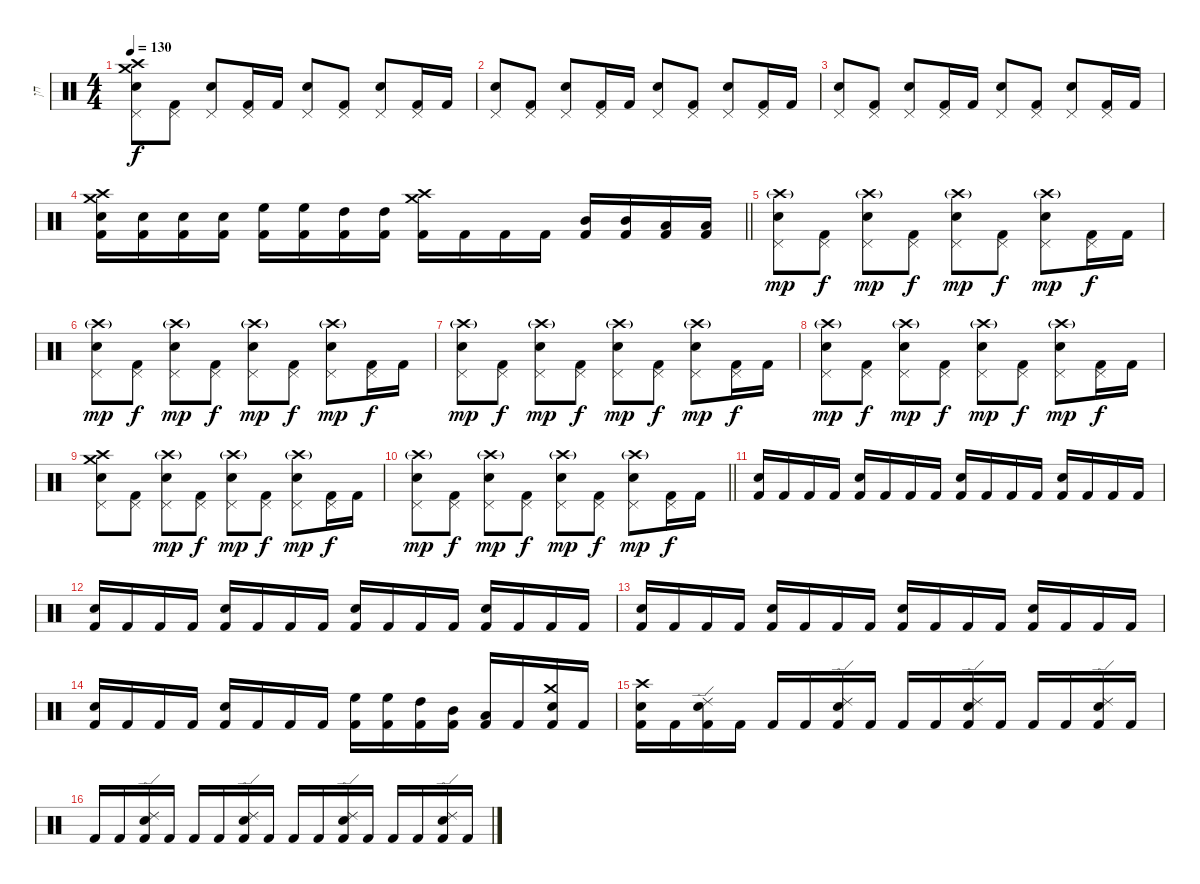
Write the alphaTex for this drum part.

\track ("חן" "חן") {instrument percussion}
\staff {score}
\articulation defaults
\ts (4 4)
\tempo 130
\clef neutral
\ks c
("Crash high (hit)" "Electric Snare (hit)" "Pedal Hi-Hat (hit)" "Crash medium (hit)").8{dy f} ("Pedal Hi-Hat (hit)" "Kick (hit) 2").8 ("Electric Snare (hit)" "Pedal Hi-Hat (hit)").8 ("Pedal Hi-Hat (hit)" "Kick (hit) 2").16 "Kick (hit) 2".16 ("Electric Snare (hit)" "Pedal Hi-Hat (hit)").8 ("Pedal Hi-Hat (hit)" "Kick (hit) 2").8 ("Electric Snare (hit)" "Pedal Hi-Hat (hit)").8 ("Pedal Hi-Hat (hit)" "Kick (hit) 2").16 "Kick (hit) 2".16 |
("Electric Snare (hit)" "Pedal Hi-Hat (hit)").8 ("Pedal Hi-Hat (hit)" "Kick (hit) 2").8 ("Electric Snare (hit)" "Pedal Hi-Hat (hit)").8 ("Pedal Hi-Hat (hit)" "Kick (hit) 2").16 "Kick (hit) 2".16 ("Electric Snare (hit)" "Pedal Hi-Hat (hit)").8 ("Pedal Hi-Hat (hit)" "Kick (hit) 2").8 ("Electric Snare (hit)" "Pedal Hi-Hat (hit)").8 ("Pedal Hi-Hat (hit)" "Kick (hit) 2").16 "Kick (hit) 2".16 |
("Electric Snare (hit)" "Pedal Hi-Hat (hit)").8 ("Pedal Hi-Hat (hit)" "Kick (hit) 2").8 ("Electric Snare (hit)" "Pedal Hi-Hat (hit)").8 ("Pedal Hi-Hat (hit)" "Kick (hit) 2").16 "Kick (hit) 2".16 ("Electric Snare (hit)" "Pedal Hi-Hat (hit)").8 ("Pedal Hi-Hat (hit)" "Kick (hit) 2").8 ("Electric Snare (hit)" "Pedal Hi-Hat (hit)").8 ("Pedal Hi-Hat (hit)" "Kick (hit) 2").16 "Kick (hit) 2".16 |
\barLineRight lightlight
("Crash medium (hit)" "Crash high (hit)" "Electric Snare (hit)" "Kick (hit) 2").16 ("Electric Snare (hit)" "Kick (hit) 2").16 ("Electric Snare (hit)" "Kick (hit) 2").16 ("Electric Snare (hit)" "Kick (hit) 2").16 ("High Floor Tom (hit)" "Kick (hit) 2").16 ("High Floor Tom (hit)" "Kick (hit) 2").16 ("High Tom (hit)" "Kick (hit) 2").16 ("High Tom (hit)" "Kick (hit) 2").16 ("Crash medium (hit)" "Crash high (hit)" "Kick (hit) 2").16 "Kick (hit) 2".16 "Kick (hit) 2".16 "Kick (hit) 2".16 ("Mid Tom (hit)" "Kick (hit) 2").16 ("Mid Tom (hit)" "Kick (hit) 2").16 ("Low Tom (hit)" "Kick (hit) 2").16 ("Low Tom (hit)" "Kick (hit) 2").16 |
("Crash high (hit)"{g} "Electric Snare (hit)" "Pedal Hi-Hat (hit)").8{dy mp} ("Pedal Hi-Hat (hit)" "Kick (hit) 2").8{dy f} ("Crash high (hit)"{g} "Electric Snare (hit)" "Pedal Hi-Hat (hit)").8{dy mp} ("Pedal Hi-Hat (hit)" "Kick (hit) 2").8{dy f} ("Crash high (hit)"{g} "Electric Snare (hit)" "Pedal Hi-Hat (hit)").8{dy mp} ("Pedal Hi-Hat (hit)" "Kick (hit) 2").8{dy f} ("Crash high (hit)"{g} "Electric Snare (hit)" "Pedal Hi-Hat (hit)").8{dy mp} ("Pedal Hi-Hat (hit)" "Kick (hit) 2").16{dy f} "Kick (hit) 2".16 |
("Crash high (hit)"{g} "Electric Snare (hit)" "Pedal Hi-Hat (hit)").8{dy mp} ("Pedal Hi-Hat (hit)" "Kick (hit) 2").8{dy f} ("Crash high (hit)"{g} "Electric Snare (hit)" "Pedal Hi-Hat (hit)").8{dy mp} ("Pedal Hi-Hat (hit)" "Kick (hit) 2").8{dy f} ("Crash high (hit)"{g} "Electric Snare (hit)" "Pedal Hi-Hat (hit)").8{dy mp} ("Pedal Hi-Hat (hit)" "Kick (hit) 2").8{dy f} ("Crash high (hit)"{g} "Electric Snare (hit)" "Pedal Hi-Hat (hit)").8{dy mp} ("Pedal Hi-Hat (hit)" "Kick (hit) 2").16{dy f} "Kick (hit) 2".16 |
("Crash high (hit)"{g} "Electric Snare (hit)" "Pedal Hi-Hat (hit)").8{dy mp} ("Pedal Hi-Hat (hit)" "Kick (hit) 2").8{dy f} ("Crash high (hit)"{g} "Electric Snare (hit)" "Pedal Hi-Hat (hit)").8{dy mp} ("Pedal Hi-Hat (hit)" "Kick (hit) 2").8{dy f} ("Crash high (hit)"{g} "Electric Snare (hit)" "Pedal Hi-Hat (hit)").8{dy mp} ("Pedal Hi-Hat (hit)" "Kick (hit) 2").8{dy f} ("Crash high (hit)"{g} "Electric Snare (hit)" "Pedal Hi-Hat (hit)").8{dy mp} ("Pedal Hi-Hat (hit)" "Kick (hit) 2").16{dy f} "Kick (hit) 2".16 |
("Crash high (hit)"{g} "Electric Snare (hit)" "Pedal Hi-Hat (hit)").8{dy mp} ("Pedal Hi-Hat (hit)" "Kick (hit) 2").8{dy f} ("Crash high (hit)"{g} "Electric Snare (hit)" "Pedal Hi-Hat (hit)").8{dy mp} ("Pedal Hi-Hat (hit)" "Kick (hit) 2").8{dy f} ("Crash high (hit)"{g} "Electric Snare (hit)" "Pedal Hi-Hat (hit)").8{dy mp} ("Pedal Hi-Hat (hit)" "Kick (hit) 2").8{dy f} ("Crash high (hit)"{g} "Electric Snare (hit)" "Pedal Hi-Hat (hit)").8{dy mp} ("Pedal Hi-Hat (hit)" "Kick (hit) 2").16{dy f} "Kick (hit) 2".16 |
("Crash high (hit)" "Electric Snare (hit)" "Pedal Hi-Hat (hit)" "Crash medium (hit)").8 ("Pedal Hi-Hat (hit)" "Kick (hit) 2").8 ("Crash high (hit)"{g} "Electric Snare (hit)" "Pedal Hi-Hat (hit)").8{dy mp} ("Pedal Hi-Hat (hit)" "Kick (hit) 2").8{dy f} ("Crash high (hit)"{g} "Electric Snare (hit)" "Pedal Hi-Hat (hit)").8{dy mp} ("Pedal Hi-Hat (hit)" "Kick (hit) 2").8{dy f} ("Crash high (hit)"{g} "Electric Snare (hit)" "Pedal Hi-Hat (hit)").8{dy mp} ("Pedal Hi-Hat (hit)" "Kick (hit) 2").16{dy f} "Kick (hit) 2".16 |
\barLineRight lightlight
("Crash high (hit)"{g} "Electric Snare (hit)" "Pedal Hi-Hat (hit)").8{dy mp} ("Pedal Hi-Hat (hit)" "Kick (hit) 2").8{dy f} ("Crash high (hit)"{g} "Electric Snare (hit)" "Pedal Hi-Hat (hit)").8{dy mp} ("Pedal Hi-Hat (hit)" "Kick (hit) 2").8{dy f} ("Crash high (hit)"{g} "Electric Snare (hit)" "Pedal Hi-Hat (hit)").8{dy mp} ("Pedal Hi-Hat (hit)" "Kick (hit) 2").8{dy f} ("Crash high (hit)"{g} "Electric Snare (hit)" "Pedal Hi-Hat (hit)").8{dy mp} ("Pedal Hi-Hat (hit)" "Kick (hit) 2").16{dy f} "Kick (hit) 2".16 |
("Electric Snare (hit)" "Kick (hit) 2").16 "Kick (hit) 2".16 "Kick (hit) 2".16 "Kick (hit) 2".16 ("Electric Snare (hit)" "Kick (hit) 2").16 "Kick (hit) 2".16 "Kick (hit) 2".16 "Kick (hit) 2".16 ("Electric Snare (hit)" "Kick (hit) 2").16 "Kick (hit) 2".16 "Kick (hit) 2".16 "Kick (hit) 2".16 ("Electric Snare (hit)" "Kick (hit) 2").16 "Kick (hit) 2".16 "Kick (hit) 2".16 "Kick (hit) 2".16 |
("Electric Snare (hit)" "Kick (hit) 2").16 "Kick (hit) 2".16 "Kick (hit) 2".16 "Kick (hit) 2".16 ("Electric Snare (hit)" "Kick (hit) 2").16 "Kick (hit) 2".16 "Kick (hit) 2".16 "Kick (hit) 2".16 ("Electric Snare (hit)" "Kick (hit) 2").16 "Kick (hit) 2".16 "Kick (hit) 2".16 "Kick (hit) 2".16 ("Electric Snare (hit)" "Kick (hit) 2").16 "Kick (hit) 2".16 "Kick (hit) 2".16 "Kick (hit) 2".16 |
("Electric Snare (hit)" "Kick (hit) 2").16 "Kick (hit) 2".16 "Kick (hit) 2".16 "Kick (hit) 2".16 ("Electric Snare (hit)" "Kick (hit) 2").16 "Kick (hit) 2".16 "Kick (hit) 2".16 "Kick (hit) 2".16 ("Electric Snare (hit)" "Kick (hit) 2").16 "Kick (hit) 2".16 "Kick (hit) 2".16 "Kick (hit) 2".16 ("Electric Snare (hit)" "Kick (hit) 2").16 "Kick (hit) 2".16 "Kick (hit) 2".16 "Kick (hit) 2".16 |
("Electric Snare (hit)" "Kick (hit) 2").16 "Kick (hit) 2".16 "Kick (hit) 2".16 "Kick (hit) 2".16 ("Electric Snare (hit)" "Kick (hit) 2").16 "Kick (hit) 2".16 "Kick (hit) 2".16 "Kick (hit) 2".16 ("High Floor Tom (hit)" "Kick (hit) 2").16 ("High Floor Tom (hit)" "Kick (hit) 2").16 ("High Tom (hit)" "Kick (hit) 2").16 ("Mid Tom (hit)" "Kick (hit) 2").16 ("Low Tom (hit)" "Kick (hit) 2").16 "Kick (hit) 2".16 ("Crash medium (hit)" "Electric Snare (hit)" "Kick (hit) 2").16 "Kick (hit) 2".16 |
("Crash high (hit)" "Electric Snare (hit)" "Kick (hit) 2").16 "Kick (hit) 2".16 ("Ride (edge) 2" "Electric Snare (hit)" "Kick (hit) 2").16 "Kick (hit) 2".16 "Kick (hit) 2".16 "Kick (hit) 2".16 ("Ride (edge) 2" "Electric Snare (hit)" "Kick (hit) 2").16 "Kick (hit) 2".16 "Kick (hit) 2".16 "Kick (hit) 2".16 ("Ride (edge) 2" "Electric Snare (hit)" "Kick (hit) 2").16 "Kick (hit) 2".16 "Kick (hit) 2".16 "Kick (hit) 2".16 ("Ride (edge) 2" "Electric Snare (hit)" "Kick (hit) 2").16 "Kick (hit) 2".16 |
"Kick (hit) 2".16 "Kick (hit) 2".16 ("Ride (edge) 2" "Electric Snare (hit)" "Kick (hit) 2").16 "Kick (hit) 2".16 "Kick (hit) 2".16 "Kick (hit) 2".16 ("Ride (edge) 2" "Electric Snare (hit)" "Kick (hit) 2").16 "Kick (hit) 2".16 "Kick (hit) 2".16 "Kick (hit) 2".16 ("Ride (edge) 2" "Electric Snare (hit)" "Kick (hit) 2").16 "Kick (hit) 2".16 "Kick (hit) 2".16 "Kick (hit) 2".16 ("Ride (edge) 2" "Electric Snare (hit)" "Kick (hit) 2").16 "Kick (hit) 2".16
